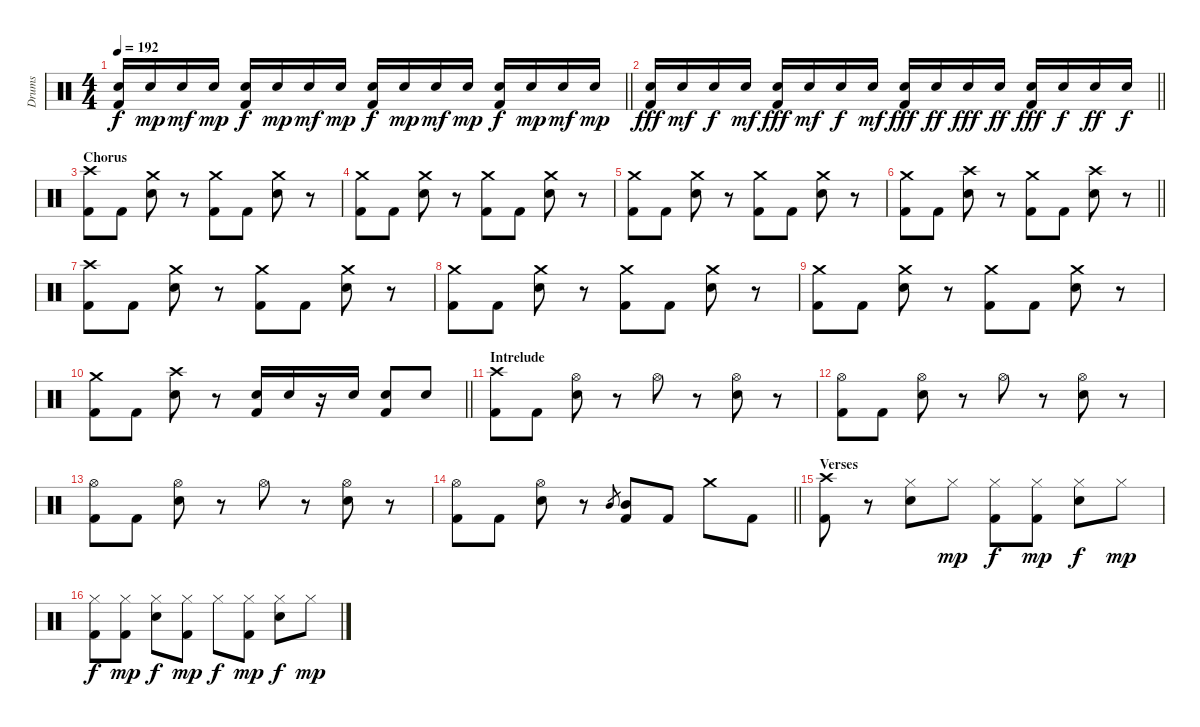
\track ("Drums" "Drums") {instrument percussion}
\staff {score}
\articulation defaults
\ts (4 4)
\tempo 192
\clef neutral
\barLineRight lightlight
\ks c
("Snare (hit) 2" "Kick (hit) 2").16{dy f} "Snare (hit) 2".16{dy mp} "Snare (hit) 2".16{dy mf} "Snare (hit) 2".16{dy mp} ("Snare (hit) 2" "Kick (hit) 2").16{dy f} "Snare (hit) 2".16{dy mp} "Snare (hit) 2".16{dy mf} "Snare (hit) 2".16{dy mp} ("Snare (hit) 2" "Kick (hit) 2").16{dy f} "Snare (hit) 2".16{dy mp} "Snare (hit) 2".16{dy mf} "Snare (hit) 2".16{dy mp} ("Snare (hit) 2" "Kick (hit) 2").16{dy f} "Snare (hit) 2".16{dy mp} "Snare (hit) 2".16{dy mf} "Snare (hit) 2".16{dy mp} |
\barLineRight lightlight
("Snare (hit) 2" "Kick (hit) 2").16{dy fff} "Snare (hit) 2".16{dy mf} "Snare (hit) 2".16{dy f} "Snare (hit) 2".16{dy mf} ("Snare (hit) 2" "Kick (hit) 2").16{dy fff} "Snare (hit) 2".16{dy mf} "Snare (hit) 2".16{dy f} "Snare (hit) 2".16{dy mf} ("Snare (hit) 2" "Kick (hit) 2").16{dy fff} "Snare (hit) 2".16{dy ff} "Snare (hit) 2".16{dy fff} "Snare (hit) 2".16{dy ff} ("Snare (hit) 2" "Kick (hit) 2").16{dy fff} "Snare (hit) 2".16{dy f} "Snare (hit) 2".16{dy ff} "Snare (hit) 2".16{dy f} |
\section ("" "Chorus")
("Crash high (hit)" "Kick (hit) 2").8 "Kick (hit) 2".8 ("Crash medium (hit)" "Snare (hit) 2").8 r.8 ("Crash medium (hit)" "Kick (hit) 2").8 "Kick (hit) 2".8 ("Crash medium (hit)" "Snare (hit) 2").8 r.8 |
("Crash medium (hit)" "Kick (hit) 2").8 "Kick (hit) 2".8 ("Crash medium (hit)" "Snare (hit) 2").8 r.8 ("Crash medium (hit)" "Kick (hit) 2").8 "Kick (hit) 2".8 ("Crash medium (hit)" "Snare (hit) 2").8 r.8 |
("Crash medium (hit)" "Kick (hit) 2").8 "Kick (hit) 2".8 ("Crash medium (hit)" "Snare (hit) 2").8 r.8 ("Crash medium (hit)" "Kick (hit) 2").8 "Kick (hit) 2".8 ("Crash medium (hit)" "Snare (hit) 2").8 r.8 |
\barLineRight lightlight
("Crash medium (hit)" "Kick (hit) 2").8 "Kick (hit) 2".8 ("Crash high (hit)" "Snare (hit) 2").8 r.8 ("Crash medium (hit)" "Kick (hit) 2").8 "Kick (hit) 2".8 ("Crash high (hit)" "Snare (hit) 2").8 r.8 |
("Crash high (hit)" "Kick (hit) 2").8 "Kick (hit) 2".8 ("Crash medium (hit)" "Snare (hit) 2").8 r.8 ("Crash medium (hit)" "Kick (hit) 2").8 "Kick (hit) 2".8 ("Crash medium (hit)" "Snare (hit) 2").8 r.8 |
("Crash medium (hit)" "Kick (hit) 2").8 "Kick (hit) 2".8 ("Crash medium (hit)" "Snare (hit) 2").8 r.8 ("Crash medium (hit)" "Kick (hit) 2").8 "Kick (hit) 2".8 ("Crash medium (hit)" "Snare (hit) 2").8 r.8 |
("Crash medium (hit)" "Kick (hit) 2").8 "Kick (hit) 2".8 ("Crash medium (hit)" "Snare (hit) 2").8 r.8 ("Crash medium (hit)" "Kick (hit) 2").8 "Kick (hit) 2".8 ("Crash medium (hit)" "Snare (hit) 2").8 r.8 |
\barLineRight lightlight
("Crash medium (hit)" "Kick (hit) 2").8 "Kick (hit) 2".8 ("Crash high (hit)" "Snare (hit) 2").8 r.8 ("Snare (hit) 2" "Kick (hit) 2").16 "Snare (hit) 2".16 r.16 "Snare (hit) 2".16 ("Snare (hit) 2" "Kick (hit) 2").8 "Snare (hit) 2".8 |
\section ("" "Intrelude")
("Crash high (hit)" "Kick (hit) 2").8 "Kick (hit) 2".8 ("Hi-Hat (open)" "Snare (hit) 2").8 r.8 "Hi-Hat (open)".8 r.8 ("Hi-Hat (open)" "Snare (hit) 2").8 r.8 |
("Hi-Hat (open)" "Kick (hit) 2").8 "Kick (hit) 2".8 ("Hi-Hat (open)" "Snare (hit) 2").8 r.8 "Hi-Hat (open)".8 r.8 ("Hi-Hat (open)" "Snare (hit) 2").8 r.8 |
("Hi-Hat (open)" "Kick (hit) 2").8 "Kick (hit) 2".8 ("Hi-Hat (open)" "Snare (hit) 2").8 r.8 "Hi-Hat (open)".8 r.8 ("Hi-Hat (open)" "Snare (hit) 2").8 r.8 |
\barLineRight lightlight
("Hi-Hat (open)" "Kick (hit) 2").8 "Kick (hit) 2".8 ("Hi-Hat (open)" "Snare (hit) 2").8 r.8 "Mid Tom (hit)".8{gr} ("Mid Tom (hit)" "Kick (hit) 2").8 "Kick (hit) 2".8 "Crash medium (hit)".8 "Kick (hit) 2".8 |
\section ("" "Verses")
("Crash high (hit)" "Kick (hit) 2").8 r.8 ("Hi-Hat (closed)" "Snare (hit) 2").8 "Hi-Hat (closed)".8{dy mp} ("Hi-Hat (closed)" "Kick (hit) 2").8{dy f} ("Hi-Hat (closed)" "Kick (hit) 2").8{dy mp} ("Hi-Hat (closed)" "Snare (hit) 2").8{dy f} "Hi-Hat (closed)".8{dy mp} |
("Hi-Hat (closed)" "Kick (hit) 2").8{dy f} ("Hi-Hat (closed)" "Kick (hit) 2").8{dy mp} ("Hi-Hat (closed)" "Snare (hit) 2").8{dy f} ("Hi-Hat (closed)" "Kick (hit) 2").8{dy mp} "Hi-Hat (closed)".8{dy f} ("Hi-Hat (closed)" "Kick (hit) 2").8{dy mp} ("Hi-Hat (closed)" "Snare (hit) 2").8{dy f} "Hi-Hat (closed)".8{dy mp}
